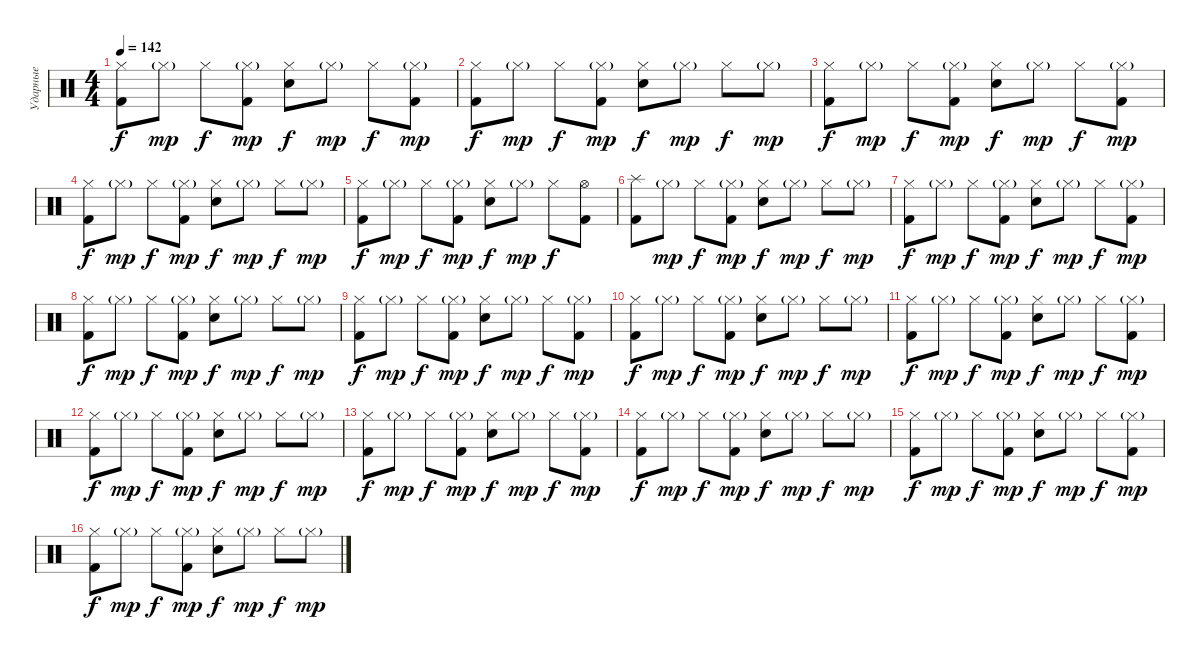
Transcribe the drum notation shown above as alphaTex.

\track ("Ударные" "Ударные") {instrument percussion}
\staff {score}
\articulation defaults
\ts (4 4)
\tempo 142
\clef neutral
\ks c
("Hi-Hat (closed)" "Kick (hit) 2").8{dy f} "Hi-Hat (closed)"{g}.8{dy mp} "Hi-Hat (closed)".8{dy f} ("Hi-Hat (closed)"{g} "Kick (hit) 2").8{dy mp} ("Hi-Hat (closed)" "Snare (hit) 2").8{dy f} "Hi-Hat (closed)"{g}.8{dy mp} "Hi-Hat (closed)".8{dy f} ("Hi-Hat (closed)"{g} "Kick (hit) 2").8{dy mp} |
("Hi-Hat (closed)" "Kick (hit) 2").8{dy f} "Hi-Hat (closed)"{g}.8{dy mp} "Hi-Hat (closed)".8{dy f} ("Hi-Hat (closed)"{g} "Kick (hit) 2").8{dy mp} ("Hi-Hat (closed)" "Snare (hit) 2").8{dy f} "Hi-Hat (closed)"{g}.8{dy mp} "Hi-Hat (closed)".8{dy f} "Hi-Hat (closed)"{g}.8{dy mp} |
("Hi-Hat (closed)" "Kick (hit) 2").8{dy f} "Hi-Hat (closed)"{g}.8{dy mp} "Hi-Hat (closed)".8{dy f} ("Hi-Hat (closed)"{g} "Kick (hit) 2").8{dy mp} ("Hi-Hat (closed)" "Snare (hit) 2").8{dy f} "Hi-Hat (closed)"{g}.8{dy mp} "Hi-Hat (closed)".8{dy f} ("Hi-Hat (closed)"{g} "Kick (hit) 2").8{dy mp} |
("Hi-Hat (closed)" "Kick (hit) 2").8{dy f} "Hi-Hat (closed)"{g}.8{dy mp} "Hi-Hat (closed)".8{dy f} ("Hi-Hat (closed)"{g} "Kick (hit) 2").8{dy mp} ("Hi-Hat (closed)" "Snare (hit) 2").8{dy f} "Hi-Hat (closed)"{g}.8{dy mp} "Hi-Hat (closed)".8{dy f} "Hi-Hat (closed)"{g}.8{dy mp} |
("Hi-Hat (closed)" "Kick (hit) 2").8{dy f} "Hi-Hat (closed)"{g}.8{dy mp} "Hi-Hat (closed)".8{dy f} ("Hi-Hat (closed)"{g} "Kick (hit) 2").8{dy mp} ("Hi-Hat (closed)" "Snare (hit) 2").8{dy f} "Hi-Hat (closed)"{g}.8{dy mp} "Hi-Hat (closed)".8{dy f} ("Hi-Hat (open)" "Kick (hit) 2").8 |
("Splash (hit)" "Kick (hit) 2").8 "Hi-Hat (closed)"{g}.8{dy mp} "Hi-Hat (closed)".8{dy f} ("Hi-Hat (closed)"{g} "Kick (hit) 2").8{dy mp} ("Hi-Hat (closed)" "Snare (hit) 2").8{dy f} "Hi-Hat (closed)"{g}.8{dy mp} "Hi-Hat (closed)".8{dy f} "Hi-Hat (closed)"{g}.8{dy mp} |
("Hi-Hat (closed)" "Kick (hit) 2").8{dy f} "Hi-Hat (closed)"{g}.8{dy mp} "Hi-Hat (closed)".8{dy f} ("Hi-Hat (closed)"{g} "Kick (hit) 2").8{dy mp} ("Hi-Hat (closed)" "Snare (hit) 2").8{dy f} "Hi-Hat (closed)"{g}.8{dy mp} "Hi-Hat (closed)".8{dy f} ("Hi-Hat (closed)"{g} "Kick (hit) 2").8{dy mp} |
("Hi-Hat (closed)" "Kick (hit) 2").8{dy f} "Hi-Hat (closed)"{g}.8{dy mp} "Hi-Hat (closed)".8{dy f} ("Hi-Hat (closed)"{g} "Kick (hit) 2").8{dy mp} ("Hi-Hat (closed)" "Snare (hit) 2").8{dy f} "Hi-Hat (closed)"{g}.8{dy mp} "Hi-Hat (closed)".8{dy f} "Hi-Hat (closed)"{g}.8{dy mp} |
("Hi-Hat (closed)" "Kick (hit) 2").8{dy f} "Hi-Hat (closed)"{g}.8{dy mp} "Hi-Hat (closed)".8{dy f} ("Hi-Hat (closed)"{g} "Kick (hit) 2").8{dy mp} ("Hi-Hat (closed)" "Snare (hit) 2").8{dy f} "Hi-Hat (closed)"{g}.8{dy mp} "Hi-Hat (closed)".8{dy f} ("Hi-Hat (closed)"{g} "Kick (hit) 2").8{dy mp} |
("Hi-Hat (closed)" "Kick (hit) 2").8{dy f} "Hi-Hat (closed)"{g}.8{dy mp} "Hi-Hat (closed)".8{dy f} ("Hi-Hat (closed)"{g} "Kick (hit) 2").8{dy mp} ("Hi-Hat (closed)" "Snare (hit) 2").8{dy f} "Hi-Hat (closed)"{g}.8{dy mp} "Hi-Hat (closed)".8{dy f} "Hi-Hat (closed)"{g}.8{dy mp} |
("Hi-Hat (closed)" "Kick (hit) 2").8{dy f} "Hi-Hat (closed)"{g}.8{dy mp} "Hi-Hat (closed)".8{dy f} ("Hi-Hat (closed)"{g} "Kick (hit) 2").8{dy mp} ("Hi-Hat (closed)" "Snare (hit) 2").8{dy f} "Hi-Hat (closed)"{g}.8{dy mp} "Hi-Hat (closed)".8{dy f} ("Hi-Hat (closed)"{g} "Kick (hit) 2").8{dy mp} |
("Hi-Hat (closed)" "Kick (hit) 2").8{dy f} "Hi-Hat (closed)"{g}.8{dy mp} "Hi-Hat (closed)".8{dy f} ("Hi-Hat (closed)"{g} "Kick (hit) 2").8{dy mp} ("Hi-Hat (closed)" "Snare (hit) 2").8{dy f} "Hi-Hat (closed)"{g}.8{dy mp} "Hi-Hat (closed)".8{dy f} "Hi-Hat (closed)"{g}.8{dy mp} |
("Hi-Hat (closed)" "Kick (hit) 2").8{dy f} "Hi-Hat (closed)"{g}.8{dy mp} "Hi-Hat (closed)".8{dy f} ("Hi-Hat (closed)"{g} "Kick (hit) 2").8{dy mp} ("Hi-Hat (closed)" "Snare (hit) 2").8{dy f} "Hi-Hat (closed)"{g}.8{dy mp} "Hi-Hat (closed)".8{dy f} ("Hi-Hat (closed)"{g} "Kick (hit) 2").8{dy mp} |
("Hi-Hat (closed)" "Kick (hit) 2").8{dy f} "Hi-Hat (closed)"{g}.8{dy mp} "Hi-Hat (closed)".8{dy f} ("Hi-Hat (closed)"{g} "Kick (hit) 2").8{dy mp} ("Hi-Hat (closed)" "Snare (hit) 2").8{dy f} "Hi-Hat (closed)"{g}.8{dy mp} "Hi-Hat (closed)".8{dy f} "Hi-Hat (closed)"{g}.8{dy mp} |
("Hi-Hat (closed)" "Kick (hit) 2").8{dy f} "Hi-Hat (closed)"{g}.8{dy mp} "Hi-Hat (closed)".8{dy f} ("Hi-Hat (closed)"{g} "Kick (hit) 2").8{dy mp} ("Hi-Hat (closed)" "Snare (hit) 2").8{dy f} "Hi-Hat (closed)"{g}.8{dy mp} "Hi-Hat (closed)".8{dy f} ("Hi-Hat (closed)"{g} "Kick (hit) 2").8{dy mp} |
("Hi-Hat (closed)" "Kick (hit) 2").8{dy f} "Hi-Hat (closed)"{g}.8{dy mp} "Hi-Hat (closed)".8{dy f} ("Hi-Hat (closed)"{g} "Kick (hit) 2").8{dy mp} ("Hi-Hat (closed)" "Snare (hit) 2").8{dy f} "Hi-Hat (closed)"{g}.8{dy mp} "Hi-Hat (closed)".8{dy f} "Hi-Hat (closed)"{g}.8{dy mp}
